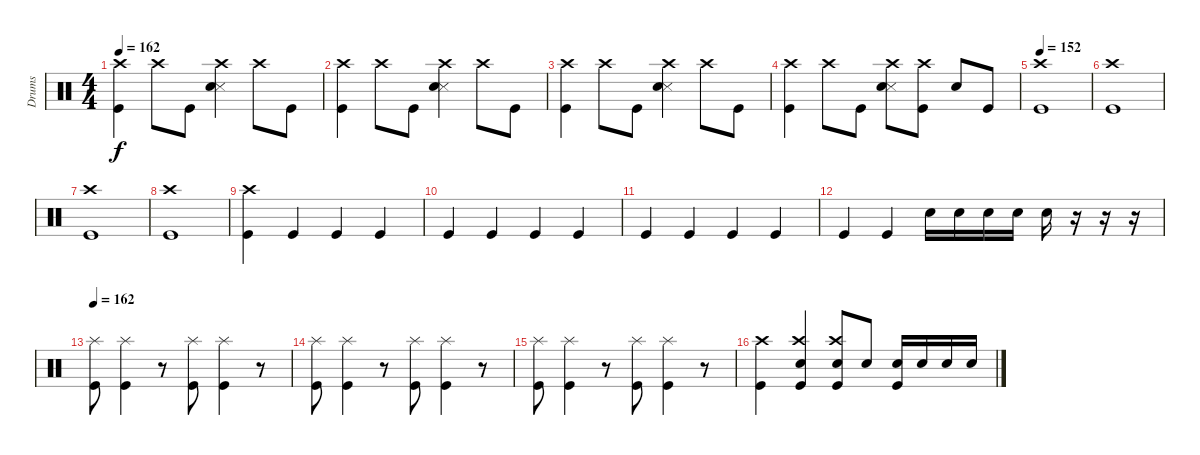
\track ("Drums" "Drums") {instrument percussion}
\staff {score}
\articulation defaults
\ts (4 4)
\tempo 162
\clef neutral
\ks c
("Kick (hit)" "Crash high (hit)").4{dy f} "Crash high (hit)".8 "Kick (hit)".8 ("Metronome (hit)" "Snare (hit) 2" "Crash high (hit)").4 "Crash high (hit)".8 "Kick (hit)".8 |
("Kick (hit)" "Crash high (hit)").4 "Crash high (hit)".8 "Kick (hit)".8 ("Metronome (hit)" "Snare (hit) 2" "Crash high (hit)").4 "Crash high (hit)".8 "Kick (hit)".8 |
("Kick (hit)" "Crash high (hit)").4 "Crash high (hit)".8 "Kick (hit)".8 ("Metronome (hit)" "Snare (hit) 2" "Crash high (hit)").4 "Crash high (hit)".8 "Kick (hit)".8 |
("Kick (hit)" "Crash high (hit)").4 "Crash high (hit)".8 "Kick (hit)".8 ("Metronome (hit)" "Snare (hit) 2" "Crash high (hit)").8 ("Kick (hit)" "Crash high (hit)").8 "Snare (hit) 2".8 "Kick (hit)".8 |
\tempo 152
("Kick (hit)" "Crash high (hit)").1 |
("Kick (hit)" "Crash high (hit)").1 |
("Kick (hit)" "Crash high (hit)").1 |
("Kick (hit)" "Crash high (hit)").1 |
("Kick (hit)" "Crash high (hit)").4 "Kick (hit)".4 "Kick (hit)".4 "Kick (hit)".4 |
"Kick (hit)".4 "Kick (hit)".4 "Kick (hit)".4 "Kick (hit)".4 |
"Kick (hit)".4 "Kick (hit)".4 "Kick (hit)".4 "Kick (hit)".4 |
"Kick (hit)".4 "Kick (hit)".4 "Snare (hit) 2".16 "Snare (hit) 2".16 "Snare (hit) 2".16 "Snare (hit) 2".16 "Snare (hit) 2".16 r.16 r.16 r.16 |
\tempo 162
("Kick (hit)" "Splash (hit)").8 ("Kick (hit)" "Splash (hit)").4 r.8 ("Kick (hit)" "Splash (hit)").8 ("Kick (hit)" "Splash (hit)").4 r.8 |
("Kick (hit)" "Splash (hit)").8 ("Kick (hit)" "Splash (hit)").4 r.8 ("Kick (hit)" "Splash (hit)").8 ("Kick (hit)" "Splash (hit)").4 r.8 |
("Kick (hit)" "Splash (hit)").8 ("Kick (hit)" "Splash (hit)").4 r.8 ("Kick (hit)" "Splash (hit)").8 ("Kick (hit)" "Splash (hit)").4 r.8 |
("Kick (hit)" "Crash high (hit)").4 ("Kick (hit)" "Snare (hit) 2" "Crash high (hit)").4 ("Kick (hit)" "Snare (hit) 2" "Crash high (hit)").8 "Snare (hit) 2".8 ("Kick (hit)" "Snare (hit) 2").16 "Snare (hit) 2".16 "Snare (hit) 2".16 "Snare (hit) 2".16
